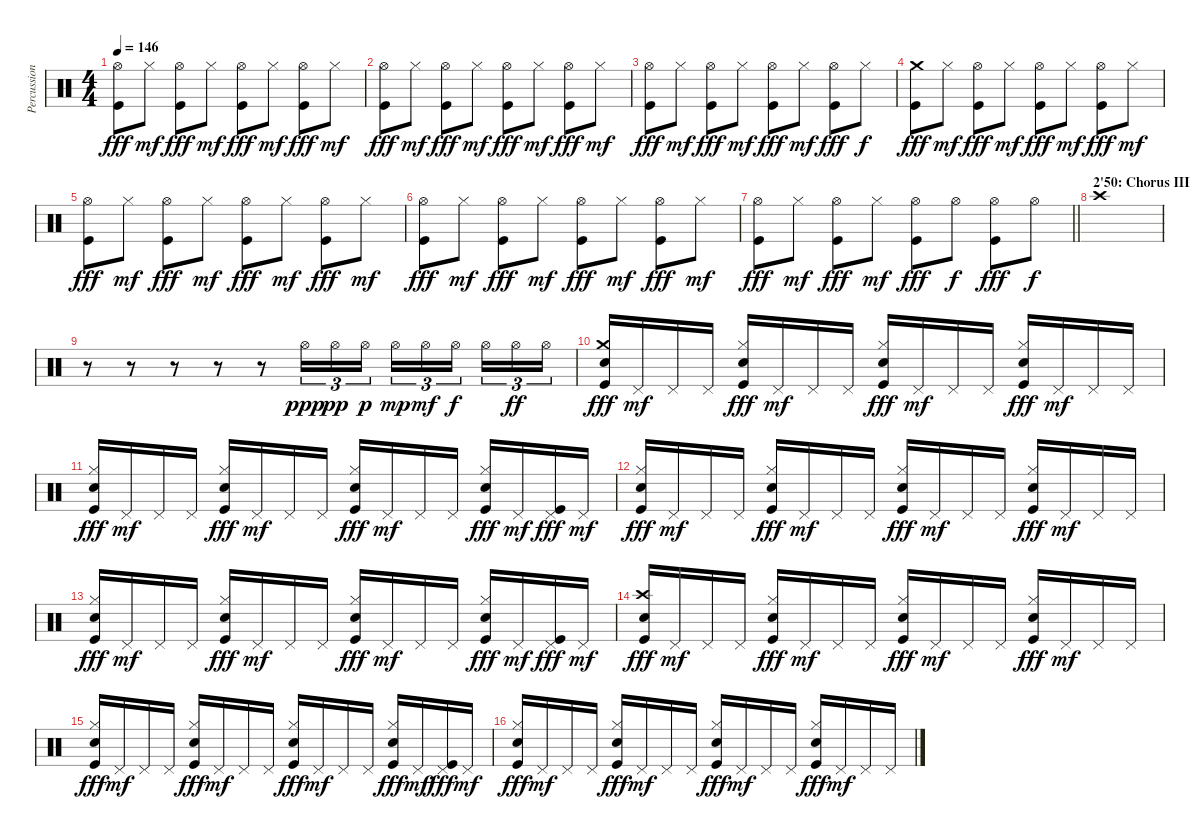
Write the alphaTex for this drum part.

\track ("Percussions" "Percussion") {instrument percussion}
\staff {score}
\articulation defaults
\ts (4 4)
\tempo 146
\clef neutral
\ks c
("Hi-Hat (open)" "Kick (hit)").8{dy fff} "Hi-Hat (closed)".8{dy mf} ("Hi-Hat (open)" "Kick (hit)").8{dy fff} "Hi-Hat (closed)".8{dy mf} ("Hi-Hat (open)" "Kick (hit)").8{dy fff} "Hi-Hat (closed)".8{dy mf} ("Hi-Hat (open)" "Kick (hit)").8{dy fff} "Hi-Hat (closed)".8{dy mf} |
("Hi-Hat (open)" "Kick (hit)").8{dy fff} "Hi-Hat (closed)".8{dy mf} ("Hi-Hat (open)" "Kick (hit)").8{dy fff} "Hi-Hat (closed)".8{dy mf} ("Hi-Hat (open)" "Kick (hit)").8{dy fff} "Hi-Hat (closed)".8{dy mf} ("Hi-Hat (open)" "Kick (hit)").8{dy fff} "Hi-Hat (closed)".8{dy mf} |
("Hi-Hat (open)" "Kick (hit)").8{dy fff} "Hi-Hat (closed)".8{dy mf} ("Hi-Hat (open)" "Kick (hit)").8{dy fff} "Hi-Hat (closed)".8{dy mf} ("Hi-Hat (open)" "Kick (hit)").8{dy fff} "Hi-Hat (closed)".8{dy mf} ("Hi-Hat (open)" "Kick (hit)").8{dy fff} "Hi-Hat (closed)".8{dy f} |
("Crash medium (hit)" "Kick (hit)").8{dy fff} "Hi-Hat (closed)".8{dy mf} ("Hi-Hat (open)" "Kick (hit)").8{dy fff} "Hi-Hat (closed)".8{dy mf} ("Hi-Hat (open)" "Kick (hit)").8{dy fff} "Hi-Hat (closed)".8{dy mf} ("Hi-Hat (open)" "Kick (hit)").8{dy fff} "Hi-Hat (closed)".8{dy mf} |
("Hi-Hat (open)" "Kick (hit)").8{dy fff} "Hi-Hat (closed)".8{dy mf} ("Hi-Hat (open)" "Kick (hit)").8{dy fff} "Hi-Hat (closed)".8{dy mf} ("Hi-Hat (open)" "Kick (hit)").8{dy fff} "Hi-Hat (closed)".8{dy mf} ("Hi-Hat (open)" "Kick (hit)").8{dy fff} "Hi-Hat (closed)".8{dy mf} |
("Hi-Hat (open)" "Kick (hit)").8{dy fff} "Hi-Hat (closed)".8{dy mf} ("Hi-Hat (open)" "Kick (hit)").8{dy fff} "Hi-Hat (closed)".8{dy mf} ("Hi-Hat (open)" "Kick (hit)").8{dy fff} "Hi-Hat (closed)".8{dy mf} ("Hi-Hat (open)" "Kick (hit)").8{dy fff} "Hi-Hat (closed)".8{dy mf} |
\barLineRight lightlight
("Hi-Hat (open)" "Kick (hit)").8{dy fff} "Hi-Hat (closed)".8{dy mf} ("Hi-Hat (open)" "Kick (hit)").8{dy fff} "Hi-Hat (closed)".8{dy mf} ("Hi-Hat (open)" "Kick (hit)").8{dy fff} "Hi-Hat (open)".8{dy f} ("Hi-Hat (open)" "Kick (hit)").8{dy fff} "Hi-Hat (open)".8{dy f} |
\section ("" "2'50: Chorus III")
"Crash high (hit)".1 |
r.8 r.8 r.8 r.8 r.8 "Hi-Hat (open)".16{tu (3 2) dy ppp} "Hi-Hat (open)".16{tu (3 2) dy pp} "Hi-Hat (open)".16{tu (3 2) dy p} "Hi-Hat (open)".16{tu (3 2) dy mp} "Hi-Hat (open)".16{tu (3 2) dy mf} "Hi-Hat (open)".16{tu (3 2) dy f beam splitsecondary} "Hi-Hat (open)".16{tu (3 2)} "Hi-Hat (open)".16{tu (3 2) dy ff} "Hi-Hat (open)".16{tu (3 2)} |
("Crash medium (hit)" "Snare (hit) 2" "Kick (hit)").16{dy fff} "Pedal Hi-Hat (hit)".16{dy mf} "Pedal Hi-Hat (hit)".16 "Pedal Hi-Hat (hit)".16 ("Hi-Hat (closed)" "Snare (hit) 2" "Kick (hit)").16{dy fff} "Pedal Hi-Hat (hit)".16{dy mf} "Pedal Hi-Hat (hit)".16 "Pedal Hi-Hat (hit)".16 ("Hi-Hat (closed)" "Snare (hit) 2" "Kick (hit)").16{dy fff} "Pedal Hi-Hat (hit)".16{dy mf} "Pedal Hi-Hat (hit)".16 "Pedal Hi-Hat (hit)".16 ("Hi-Hat (closed)" "Snare (hit) 2" "Kick (hit)").16{dy fff} "Pedal Hi-Hat (hit)".16{dy mf} "Pedal Hi-Hat (hit)".16 "Pedal Hi-Hat (hit)".16 |
("Hi-Hat (closed)" "Snare (hit) 2" "Kick (hit)").16{dy fff} "Pedal Hi-Hat (hit)".16{dy mf} "Pedal Hi-Hat (hit)".16 "Pedal Hi-Hat (hit)".16 ("Hi-Hat (closed)" "Snare (hit) 2" "Kick (hit)").16{dy fff} "Pedal Hi-Hat (hit)".16{dy mf} "Pedal Hi-Hat (hit)".16 "Pedal Hi-Hat (hit)".16 ("Hi-Hat (closed)" "Snare (hit) 2" "Kick (hit)").16{dy fff} "Pedal Hi-Hat (hit)".16{dy mf} "Pedal Hi-Hat (hit)".16 "Pedal Hi-Hat (hit)".16 ("Hi-Hat (closed)" "Snare (hit) 2" "Kick (hit)").16{dy fff} "Pedal Hi-Hat (hit)".16{dy mf} ("Pedal Hi-Hat (hit)" "Kick (hit)").16{dy fff} "Pedal Hi-Hat (hit)".16{dy mf} |
("Hi-Hat (closed)" "Snare (hit) 2" "Kick (hit)").16{dy fff} "Pedal Hi-Hat (hit)".16{dy mf} "Pedal Hi-Hat (hit)".16 "Pedal Hi-Hat (hit)".16 ("Hi-Hat (closed)" "Snare (hit) 2" "Kick (hit)").16{dy fff} "Pedal Hi-Hat (hit)".16{dy mf} "Pedal Hi-Hat (hit)".16 "Pedal Hi-Hat (hit)".16 ("Hi-Hat (closed)" "Snare (hit) 2" "Kick (hit)").16{dy fff} "Pedal Hi-Hat (hit)".16{dy mf} "Pedal Hi-Hat (hit)".16 "Pedal Hi-Hat (hit)".16 ("Hi-Hat (closed)" "Snare (hit) 2" "Kick (hit)").16{dy fff} "Pedal Hi-Hat (hit)".16{dy mf} "Pedal Hi-Hat (hit)".16 "Pedal Hi-Hat (hit)".16 |
("Hi-Hat (closed)" "Snare (hit) 2" "Kick (hit)").16{dy fff} "Pedal Hi-Hat (hit)".16{dy mf} "Pedal Hi-Hat (hit)".16 "Pedal Hi-Hat (hit)".16 ("Hi-Hat (closed)" "Snare (hit) 2" "Kick (hit)").16{dy fff} "Pedal Hi-Hat (hit)".16{dy mf} "Pedal Hi-Hat (hit)".16 "Pedal Hi-Hat (hit)".16 ("Hi-Hat (closed)" "Snare (hit) 2" "Kick (hit)").16{dy fff} "Pedal Hi-Hat (hit)".16{dy mf} "Pedal Hi-Hat (hit)".16 "Pedal Hi-Hat (hit)".16 ("Hi-Hat (closed)" "Snare (hit) 2" "Kick (hit)").16{dy fff} "Pedal Hi-Hat (hit)".16{dy mf} ("Pedal Hi-Hat (hit)" "Kick (hit)").16{dy fff} "Pedal Hi-Hat (hit)".16{dy mf} |
("Crash high (hit)" "Snare (hit) 2" "Kick (hit)").16{dy fff} "Pedal Hi-Hat (hit)".16{dy mf} "Pedal Hi-Hat (hit)".16 "Pedal Hi-Hat (hit)".16 ("Hi-Hat (closed)" "Snare (hit) 2" "Kick (hit)").16{dy fff} "Pedal Hi-Hat (hit)".16{dy mf} "Pedal Hi-Hat (hit)".16 "Pedal Hi-Hat (hit)".16 ("Hi-Hat (closed)" "Snare (hit) 2" "Kick (hit)").16{dy fff} "Pedal Hi-Hat (hit)".16{dy mf} "Pedal Hi-Hat (hit)".16 "Pedal Hi-Hat (hit)".16 ("Hi-Hat (closed)" "Snare (hit) 2" "Kick (hit)").16{dy fff} "Pedal Hi-Hat (hit)".16{dy mf} "Pedal Hi-Hat (hit)".16 "Pedal Hi-Hat (hit)".16 |
("Hi-Hat (closed)" "Snare (hit) 2" "Kick (hit)").16{dy fff} "Pedal Hi-Hat (hit)".16{dy mf} "Pedal Hi-Hat (hit)".16 "Pedal Hi-Hat (hit)".16 ("Hi-Hat (closed)" "Snare (hit) 2" "Kick (hit)").16{dy fff} "Pedal Hi-Hat (hit)".16{dy mf} "Pedal Hi-Hat (hit)".16 "Pedal Hi-Hat (hit)".16 ("Hi-Hat (closed)" "Snare (hit) 2" "Kick (hit)").16{dy fff} "Pedal Hi-Hat (hit)".16{dy mf} "Pedal Hi-Hat (hit)".16 "Pedal Hi-Hat (hit)".16 ("Hi-Hat (closed)" "Snare (hit) 2" "Kick (hit)").16{dy fff} "Pedal Hi-Hat (hit)".16{dy mf} ("Pedal Hi-Hat (hit)" "Kick (hit)").16{dy fff} "Pedal Hi-Hat (hit)".16{dy mf} |
("Hi-Hat (closed)" "Snare (hit) 2" "Kick (hit)").16{dy fff} "Pedal Hi-Hat (hit)".16{dy mf} "Pedal Hi-Hat (hit)".16 "Pedal Hi-Hat (hit)".16 ("Hi-Hat (closed)" "Snare (hit) 2" "Kick (hit)").16{dy fff} "Pedal Hi-Hat (hit)".16{dy mf} "Pedal Hi-Hat (hit)".16 "Pedal Hi-Hat (hit)".16 ("Hi-Hat (closed)" "Snare (hit) 2" "Kick (hit)").16{dy fff} "Pedal Hi-Hat (hit)".16{dy mf} "Pedal Hi-Hat (hit)".16 "Pedal Hi-Hat (hit)".16 ("Hi-Hat (closed)" "Snare (hit) 2" "Kick (hit)").16{dy fff} "Pedal Hi-Hat (hit)".16{dy mf} "Pedal Hi-Hat (hit)".16 "Pedal Hi-Hat (hit)".16
